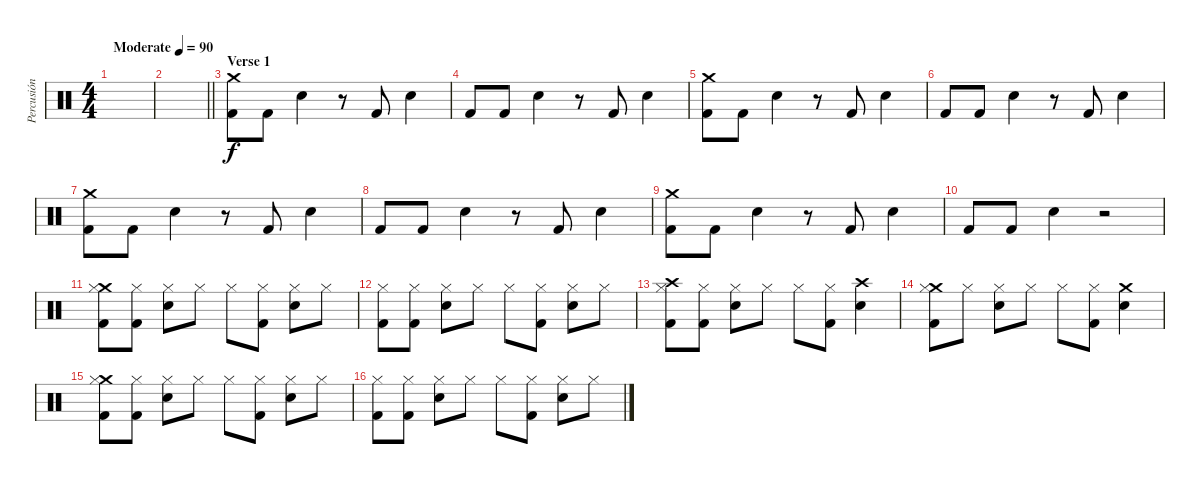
\track ("Percusión" "Percusión") {instrument percussion}
\staff {score}
\articulation defaults
\ts (4 4)
\tempo (90 "Moderate")
\clef neutral
\ks c
|
\barLineRight lightlight
|
\section ("" "Verse 1")
("Crash medium (hit)" "Kick (hit) 2").8 "Kick (hit) 2".8 "Electric Snare (hit)".4 r.8 "Kick (hit) 2".8 "Electric Snare (hit)".4 |
"Kick (hit) 2".8 "Kick (hit) 2".8 "Electric Snare (hit)".4 r.8 "Kick (hit) 2".8 "Electric Snare (hit)".4 |
("Crash medium (hit)" "Kick (hit) 2").8 "Kick (hit) 2".8 "Electric Snare (hit)".4 r.8 "Kick (hit) 2".8 "Electric Snare (hit)".4 |
"Kick (hit) 2".8 "Kick (hit) 2".8 "Electric Snare (hit)".4 r.8 "Kick (hit) 2".8 "Electric Snare (hit)".4 |
("Crash medium (hit)" "Kick (hit) 2").8 "Kick (hit) 2".8 "Electric Snare (hit)".4 r.8 "Kick (hit) 2".8 "Electric Snare (hit)".4 |
"Kick (hit) 2".8 "Kick (hit) 2".8 "Electric Snare (hit)".4 r.8 "Kick (hit) 2".8 "Electric Snare (hit)".4 |
("Crash medium (hit)" "Kick (hit) 2").8 "Kick (hit) 2".8 "Electric Snare (hit)".4 r.8 "Kick (hit) 2".8 "Electric Snare (hit)".4 |
"Kick (hit) 2".8 "Kick (hit) 2".8 "Electric Snare (hit)".4 r.2 |
("Crash medium (hit)" "Hi-Hat (closed)" "Kick (hit) 2").8 ("Hi-Hat (closed)" "Kick (hit) 2").8 ("Hi-Hat (closed)" "Electric Snare (hit)").8 "Hi-Hat (closed)".8 "Hi-Hat (closed)".8 ("Hi-Hat (closed)" "Kick (hit) 2").8 ("Hi-Hat (closed)" "Electric Snare (hit)").8 "Hi-Hat (closed)".8 |
("Hi-Hat (closed)" "Kick (hit) 2").8 ("Hi-Hat (closed)" "Kick (hit) 2").8 ("Hi-Hat (closed)" "Electric Snare (hit)").8 "Hi-Hat (closed)".8 "Hi-Hat (closed)".8 ("Hi-Hat (closed)" "Kick (hit) 2").8 ("Hi-Hat (closed)" "Electric Snare (hit)").8 "Hi-Hat (closed)".8 |
("Crash high (hit)" "Hi-Hat (closed)" "Kick (hit) 2").8 ("Hi-Hat (closed)" "Kick (hit) 2").8 ("Hi-Hat (closed)" "Electric Snare (hit)").8 "Hi-Hat (closed)".8 "Hi-Hat (closed)".8 ("Hi-Hat (closed)" "Kick (hit) 2").8 ("Crash high (hit)" "Electric Snare (hit)").4 |
("Crash medium (hit)" "Hi-Hat (closed)" "Kick (hit) 2").8 "Hi-Hat (closed)".8 ("Hi-Hat (closed)" "Electric Snare (hit)").8 "Hi-Hat (closed)".8 "Hi-Hat (closed)".8 ("Hi-Hat (closed)" "Kick (hit) 2").8 ("Crash medium (hit)" "Electric Snare (hit)").4 |
("Crash medium (hit)" "Hi-Hat (closed)" "Kick (hit) 2").8 ("Hi-Hat (closed)" "Kick (hit) 2").8 ("Hi-Hat (closed)" "Electric Snare (hit)").8 "Hi-Hat (closed)".8 "Hi-Hat (closed)".8 ("Hi-Hat (closed)" "Kick (hit) 2").8 ("Hi-Hat (closed)" "Electric Snare (hit)").8 "Hi-Hat (closed)".8 |
("Hi-Hat (closed)" "Kick (hit) 2").8 ("Hi-Hat (closed)" "Kick (hit) 2").8 ("Hi-Hat (closed)" "Electric Snare (hit)").8 "Hi-Hat (closed)".8 "Hi-Hat (closed)".8 ("Hi-Hat (closed)" "Kick (hit) 2").8 ("Hi-Hat (closed)" "Electric Snare (hit)").8 "Hi-Hat (closed)".8
